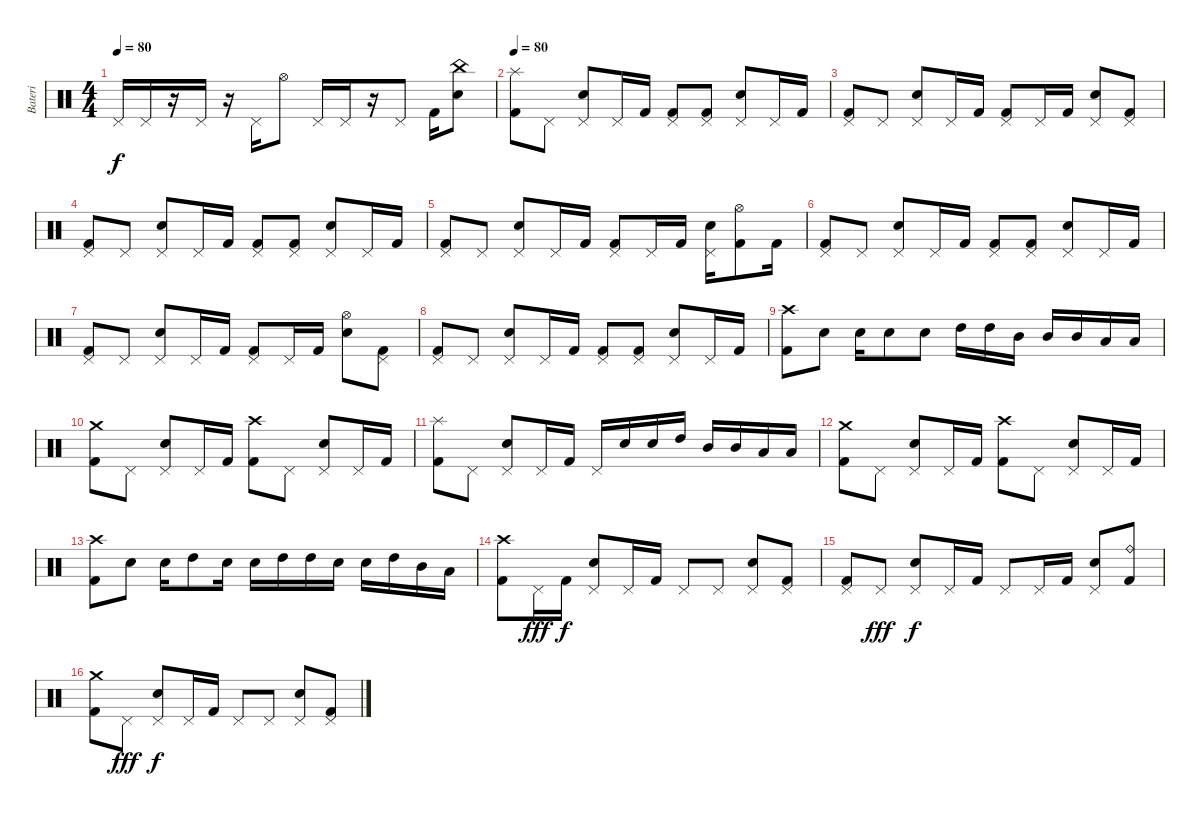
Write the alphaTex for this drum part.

\track ("Bateri" "Bateri") {instrument percussion}
\staff {score}
\articulation defaults
\ts (4 4)
\tempo 80
\clef neutral
\ks c "Pedal Hi-Hat (hit)".16{dy f} "Pedal Hi-Hat (hit)".16
r.16 "Pedal Hi-Hat (hit)".16 r.16 "Pedal Hi-Hat (hit)".16 "Hi-Hat (open)".8 "Pedal Hi-Hat (hit)".16 "Pedal Hi-Hat (hit)".16 r.16 "Pedal Hi-Hat (hit)".8 "Kick (hit) 2".16 ("China (hit)" "Electric Snare (hit)").8 |
\tempo 80
("Splash (hit)" "Kick (hit) 2").8 "Pedal Hi-Hat (hit)".8 ("Pedal Hi-Hat (hit)" "Electric Snare (hit)").8 "Pedal Hi-Hat (hit)".16 "Kick (hit) 2".16 ("Pedal Hi-Hat (hit)" "Kick (hit) 2").8 ("Pedal Hi-Hat (hit)" "Kick (hit) 2").8 ("Pedal Hi-Hat (hit)" "Electric Snare (hit)").8 "Pedal Hi-Hat (hit)".16 "Kick (hit) 2".16 |
("Pedal Hi-Hat (hit)" "Kick (hit) 2").8 "Pedal Hi-Hat (hit)".8 ("Pedal Hi-Hat (hit)" "Electric Snare (hit)").8 "Pedal Hi-Hat (hit)".16 "Kick (hit) 2".16 ("Pedal Hi-Hat (hit)" "Kick (hit) 2").8 "Pedal Hi-Hat (hit)".16 "Kick (hit) 2".16 ("Pedal Hi-Hat (hit)" "Electric Snare (hit)").8 ("Pedal Hi-Hat (hit)" "Kick (hit) 2").8 |
("Pedal Hi-Hat (hit)" "Kick (hit) 2").8 "Pedal Hi-Hat (hit)".8 ("Pedal Hi-Hat (hit)" "Electric Snare (hit)").8 "Pedal Hi-Hat (hit)".16 "Kick (hit) 2".16 ("Pedal Hi-Hat (hit)" "Kick (hit) 2").8 ("Pedal Hi-Hat (hit)" "Kick (hit) 2").8 ("Pedal Hi-Hat (hit)" "Electric Snare (hit)").8 "Pedal Hi-Hat (hit)".16 "Kick (hit) 2".16 |
("Pedal Hi-Hat (hit)" "Kick (hit) 2").8 "Pedal Hi-Hat (hit)".8 ("Pedal Hi-Hat (hit)" "Electric Snare (hit)").8 "Pedal Hi-Hat (hit)".16 "Kick (hit) 2".16 ("Pedal Hi-Hat (hit)" "Kick (hit) 2").8 "Pedal Hi-Hat (hit)".16 "Kick (hit) 2".16 ("Pedal Hi-Hat (hit)" "Electric Snare (hit)").16 ("Hi-Hat (open)" "Kick (hit) 2").8 "Kick (hit) 2".16 |
("Pedal Hi-Hat (hit)" "Kick (hit) 2").8 "Pedal Hi-Hat (hit)".8 ("Pedal Hi-Hat (hit)" "Electric Snare (hit)").8 "Pedal Hi-Hat (hit)".16 "Kick (hit) 2".16 ("Pedal Hi-Hat (hit)" "Kick (hit) 2").8 ("Pedal Hi-Hat (hit)" "Kick (hit) 2").8 ("Pedal Hi-Hat (hit)" "Electric Snare (hit)").8 "Pedal Hi-Hat (hit)".16 "Kick (hit) 2".16 |
("Pedal Hi-Hat (hit)" "Kick (hit) 2").8 "Pedal Hi-Hat (hit)".8 ("Pedal Hi-Hat (hit)" "Electric Snare (hit)").8 "Pedal Hi-Hat (hit)".16 "Kick (hit) 2".16 ("Pedal Hi-Hat (hit)" "Kick (hit) 2").8 "Pedal Hi-Hat (hit)".16 "Kick (hit) 2".16 ("Hi-Hat (open)" "Electric Snare (hit)").8 ("Pedal Hi-Hat (hit)" "Kick (hit) 2").8 |
("Pedal Hi-Hat (hit)" "Kick (hit) 2").8 "Pedal Hi-Hat (hit)".8 ("Pedal Hi-Hat (hit)" "Electric Snare (hit)").8 "Pedal Hi-Hat (hit)".16 "Kick (hit) 2".16 ("Pedal Hi-Hat (hit)" "Kick (hit) 2").8 ("Pedal Hi-Hat (hit)" "Kick (hit) 2").8 ("Pedal Hi-Hat (hit)" "Electric Snare (hit)").8 "Pedal Hi-Hat (hit)".16 "Kick (hit) 2".16 |
("Crash high (hit)" "Kick (hit) 2").8 "Electric Snare (hit)".8 "Electric Snare (hit)".16 "Electric Snare (hit)".8 "Electric Snare (hit)".8 "High Tom (hit)".16 "High Tom (hit)".16 "Mid Tom (hit)".16 "Mid Tom (hit)".16 "Mid Tom (hit)".16 "Low Tom (hit)".16 "Low Tom (hit)".16 |
("Crash medium (hit)" "Kick (hit) 2").8 "Pedal Hi-Hat (hit)".8 ("Pedal Hi-Hat (hit)" "Electric Snare (hit)").8 "Pedal Hi-Hat (hit)".16 "Kick (hit) 2".16 ("Crash high (hit)" "Kick (hit) 2").8 "Pedal Hi-Hat (hit)".8 ("Pedal Hi-Hat (hit)" "Electric Snare (hit)").8 "Pedal Hi-Hat (hit)".16 "Kick (hit) 2".16 |
("Splash (hit)" "Kick (hit) 2").8 "Pedal Hi-Hat (hit)".8 ("Pedal Hi-Hat (hit)" "Electric Snare (hit)").8 "Pedal Hi-Hat (hit)".16 "Kick (hit) 2".16 "Pedal Hi-Hat (hit)".16 "Electric Snare (hit)".16 "Electric Snare (hit)".16 "High Tom (hit)".16 "Mid Tom (hit)".16 "Mid Tom (hit)".16 "Low Tom (hit)".16 "Low Tom (hit)".16 |
("Crash medium (hit)" "Kick (hit) 2").8 "Pedal Hi-Hat (hit)".8 ("Pedal Hi-Hat (hit)" "Electric Snare (hit)").8 "Pedal Hi-Hat (hit)".16 "Kick (hit) 2".16 ("Crash high (hit)" "Kick (hit) 2").8 "Pedal Hi-Hat (hit)".8 ("Pedal Hi-Hat (hit)" "Electric Snare (hit)").8 "Pedal Hi-Hat (hit)".16 "Kick (hit) 2".16 |
("Crash high (hit)" "Kick (hit) 2").8 "Electric Snare (hit)".8 "Electric Snare (hit)".16 "High Tom (hit)".8 "Electric Snare (hit)".16 "Electric Snare (hit)".16 "High Tom (hit)".16 "High Tom (hit)".16 "Electric Snare (hit)".16 "Electric Snare (hit)".16 "High Tom (hit)".16 "Mid Tom (hit)".16 "Low Tom (hit)".16 |
("Crash high (hit)" "Kick (hit) 2").8 "Pedal Hi-Hat (hit)".16{dy fff} "Kick (hit) 2".16{dy f} ("Pedal Hi-Hat (hit)" "Electric Snare (hit)").8 "Pedal Hi-Hat (hit)".16 "Kick (hit) 2".16 "Pedal Hi-Hat (hit)".8 "Pedal Hi-Hat (hit)".8 ("Pedal Hi-Hat (hit)" "Electric Snare (hit)").8 ("Pedal Hi-Hat (hit)" "Kick (hit) 2").8 |
("Pedal Hi-Hat (hit)" "Kick (hit) 2").8 "Pedal Hi-Hat (hit)".8{dy fff} ("Pedal Hi-Hat (hit)" "Electric Snare (hit)").8{dy f} "Pedal Hi-Hat (hit)".16 "Kick (hit) 2".16 "Pedal Hi-Hat (hit)".8 "Pedal Hi-Hat (hit)".16 "Kick (hit) 2".16 ("Pedal Hi-Hat (hit)" "Electric Snare (hit)").8 ("Ride (bell)" "Kick (hit) 2").8 |
("Crash medium (hit)" "Kick (hit) 2").8 "Pedal Hi-Hat (hit)".8{dy fff} ("Pedal Hi-Hat (hit)" "Electric Snare (hit)").8{dy f} "Pedal Hi-Hat (hit)".16 "Kick (hit) 2".16 "Pedal Hi-Hat (hit)".8 "Pedal Hi-Hat (hit)".8 ("Pedal Hi-Hat (hit)" "Electric Snare (hit)").8 ("Pedal Hi-Hat (hit)" "Kick (hit) 2").8
